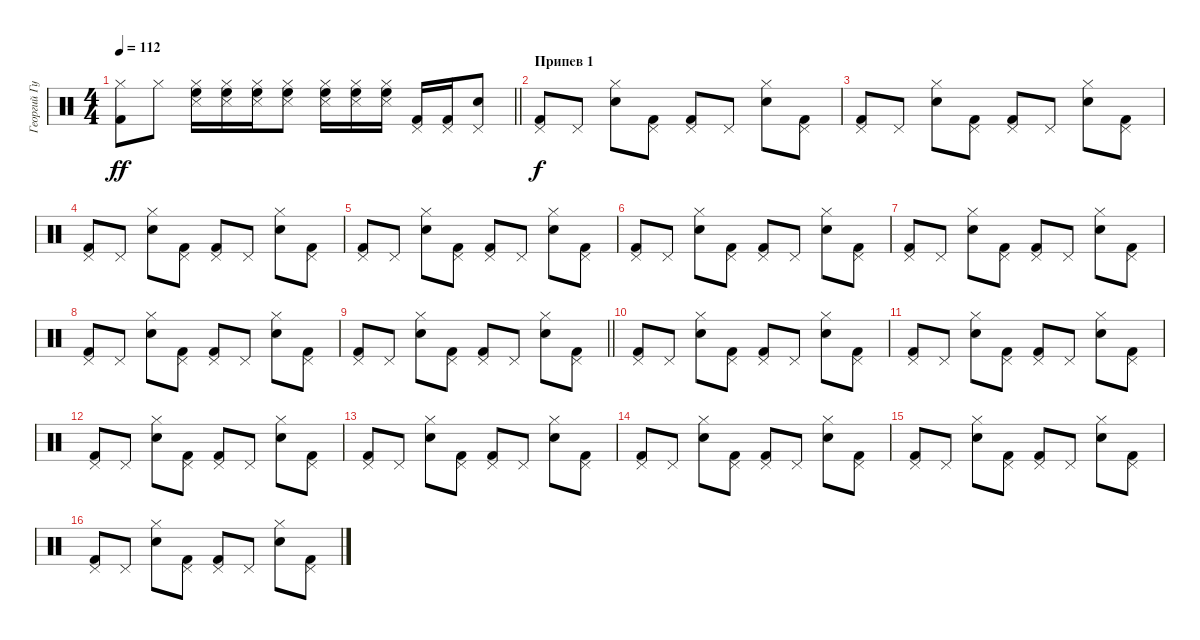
\track ("Георгий Гурьянов" "Георгий Гу") {instrument percussion}
\staff {score}
\articulation defaults
\ts (4 4)
\tempo 112
\clef neutral
\barLineRight lightlight
\ks c
("Hi-Hat (closed)" "Kick (hit) 2").8{dy ff} "Hi-Hat (closed)".8 ("Hi-Hat (closed)" "Metronome (hit)" "High Floor Tom (hit)").16 ("Hi-Hat (closed)" "Metronome (hit)" "High Floor Tom (hit)").16 ("Hi-Hat (closed)" "Metronome (hit)" "High Floor Tom (hit)").16 ("Hi-Hat (closed)" "Metronome (hit)" "High Floor Tom (hit)").8 ("Hi-Hat (closed)" "Metronome (hit)" "High Floor Tom (hit)").16 ("Hi-Hat (closed)" "Metronome (hit)" "High Floor Tom (hit)").16 ("Hi-Hat (closed)" "Metronome (hit)" "High Floor Tom (hit)").16 ("Pedal Hi-Hat (hit)" "Kick (hit) 2").16 ("Pedal Hi-Hat (hit)" "Kick (hit) 2").16 ("Pedal Hi-Hat (hit)" "Snare (hit) 2").8 |
\section ("" "Припев 1")
("Pedal Hi-Hat (hit)" "Kick (hit) 2").8{dy f} "Pedal Hi-Hat (hit)".8 ("Hi-Hat (closed)" "Electric Snare (hit)").8 ("Pedal Hi-Hat (hit)" "Kick (hit) 2").8 ("Pedal Hi-Hat (hit)" "Kick (hit) 2").8 "Pedal Hi-Hat (hit)".8 ("Hi-Hat (closed)" "Electric Snare (hit)").8 ("Pedal Hi-Hat (hit)" "Kick (hit) 2").8 |
("Pedal Hi-Hat (hit)" "Kick (hit) 2").8 "Pedal Hi-Hat (hit)".8 ("Hi-Hat (closed)" "Electric Snare (hit)").8 ("Pedal Hi-Hat (hit)" "Kick (hit) 2").8 ("Pedal Hi-Hat (hit)" "Kick (hit) 2").8 "Pedal Hi-Hat (hit)".8 ("Hi-Hat (closed)" "Electric Snare (hit)").8 ("Pedal Hi-Hat (hit)" "Kick (hit) 2").8 |
("Pedal Hi-Hat (hit)" "Kick (hit) 2").8 "Pedal Hi-Hat (hit)".8 ("Hi-Hat (closed)" "Electric Snare (hit)").8 ("Pedal Hi-Hat (hit)" "Kick (hit) 2").8 ("Pedal Hi-Hat (hit)" "Kick (hit) 2").8 "Pedal Hi-Hat (hit)".8 ("Hi-Hat (closed)" "Electric Snare (hit)").8 ("Pedal Hi-Hat (hit)" "Kick (hit) 2").8 |
("Pedal Hi-Hat (hit)" "Kick (hit) 2").8 "Pedal Hi-Hat (hit)".8 ("Hi-Hat (closed)" "Electric Snare (hit)").8 ("Pedal Hi-Hat (hit)" "Kick (hit) 2").8 ("Pedal Hi-Hat (hit)" "Kick (hit) 2").8 "Pedal Hi-Hat (hit)".8 ("Hi-Hat (closed)" "Electric Snare (hit)").8 ("Pedal Hi-Hat (hit)" "Kick (hit) 2").8 |
("Pedal Hi-Hat (hit)" "Kick (hit) 2").8 "Pedal Hi-Hat (hit)".8 ("Hi-Hat (closed)" "Electric Snare (hit)").8 ("Pedal Hi-Hat (hit)" "Kick (hit) 2").8 ("Pedal Hi-Hat (hit)" "Kick (hit) 2").8 "Pedal Hi-Hat (hit)".8 ("Hi-Hat (closed)" "Electric Snare (hit)").8 ("Pedal Hi-Hat (hit)" "Kick (hit) 2").8 |
("Pedal Hi-Hat (hit)" "Kick (hit) 2").8 "Pedal Hi-Hat (hit)".8 ("Hi-Hat (closed)" "Electric Snare (hit)").8 ("Pedal Hi-Hat (hit)" "Kick (hit) 2").8 ("Pedal Hi-Hat (hit)" "Kick (hit) 2").8 "Pedal Hi-Hat (hit)".8 ("Hi-Hat (closed)" "Electric Snare (hit)").8 ("Pedal Hi-Hat (hit)" "Kick (hit) 2").8 |
("Pedal Hi-Hat (hit)" "Kick (hit) 2").8 "Pedal Hi-Hat (hit)".8 ("Hi-Hat (closed)" "Electric Snare (hit)").8 ("Pedal Hi-Hat (hit)" "Kick (hit) 2").8 ("Pedal Hi-Hat (hit)" "Kick (hit) 2").8 "Pedal Hi-Hat (hit)".8 ("Hi-Hat (closed)" "Electric Snare (hit)").8 ("Pedal Hi-Hat (hit)" "Kick (hit) 2").8 |
\barLineRight lightlight
("Pedal Hi-Hat (hit)" "Kick (hit) 2").8 "Pedal Hi-Hat (hit)".8 ("Hi-Hat (closed)" "Electric Snare (hit)").8 ("Pedal Hi-Hat (hit)" "Kick (hit) 2").8 ("Pedal Hi-Hat (hit)" "Kick (hit) 2").8 "Pedal Hi-Hat (hit)".8 ("Hi-Hat (closed)" "Electric Snare (hit)").8 ("Pedal Hi-Hat (hit)" "Kick (hit) 2").8 |
("Pedal Hi-Hat (hit)" "Kick (hit) 2").8 "Pedal Hi-Hat (hit)".8 ("Hi-Hat (closed)" "Electric Snare (hit)").8 ("Pedal Hi-Hat (hit)" "Kick (hit) 2").8 ("Pedal Hi-Hat (hit)" "Kick (hit) 2").8 "Pedal Hi-Hat (hit)".8 ("Hi-Hat (closed)" "Electric Snare (hit)").8 ("Pedal Hi-Hat (hit)" "Kick (hit) 2").8 |
("Pedal Hi-Hat (hit)" "Kick (hit) 2").8 "Pedal Hi-Hat (hit)".8 ("Hi-Hat (closed)" "Electric Snare (hit)").8 ("Pedal Hi-Hat (hit)" "Kick (hit) 2").8 ("Pedal Hi-Hat (hit)" "Kick (hit) 2").8 "Pedal Hi-Hat (hit)".8 ("Hi-Hat (closed)" "Electric Snare (hit)").8 ("Pedal Hi-Hat (hit)" "Kick (hit) 2").8 |
("Pedal Hi-Hat (hit)" "Kick (hit) 2").8 "Pedal Hi-Hat (hit)".8 ("Hi-Hat (closed)" "Electric Snare (hit)").8 ("Pedal Hi-Hat (hit)" "Kick (hit) 2").8 ("Pedal Hi-Hat (hit)" "Kick (hit) 2").8 "Pedal Hi-Hat (hit)".8 ("Hi-Hat (closed)" "Electric Snare (hit)").8 ("Pedal Hi-Hat (hit)" "Kick (hit) 2").8 |
("Pedal Hi-Hat (hit)" "Kick (hit) 2").8 "Pedal Hi-Hat (hit)".8 ("Hi-Hat (closed)" "Electric Snare (hit)").8 ("Pedal Hi-Hat (hit)" "Kick (hit) 2").8 ("Pedal Hi-Hat (hit)" "Kick (hit) 2").8 "Pedal Hi-Hat (hit)".8 ("Hi-Hat (closed)" "Electric Snare (hit)").8 ("Pedal Hi-Hat (hit)" "Kick (hit) 2").8 |
("Pedal Hi-Hat (hit)" "Kick (hit) 2").8 "Pedal Hi-Hat (hit)".8 ("Hi-Hat (closed)" "Electric Snare (hit)").8 ("Pedal Hi-Hat (hit)" "Kick (hit) 2").8 ("Pedal Hi-Hat (hit)" "Kick (hit) 2").8 "Pedal Hi-Hat (hit)".8 ("Hi-Hat (closed)" "Electric Snare (hit)").8 ("Pedal Hi-Hat (hit)" "Kick (hit) 2").8 |
("Pedal Hi-Hat (hit)" "Kick (hit) 2").8 "Pedal Hi-Hat (hit)".8 ("Hi-Hat (closed)" "Electric Snare (hit)").8 ("Pedal Hi-Hat (hit)" "Kick (hit) 2").8 ("Pedal Hi-Hat (hit)" "Kick (hit) 2").8 "Pedal Hi-Hat (hit)".8 ("Hi-Hat (closed)" "Electric Snare (hit)").8 ("Pedal Hi-Hat (hit)" "Kick (hit) 2").8 |
("Pedal Hi-Hat (hit)" "Kick (hit) 2").8 "Pedal Hi-Hat (hit)".8 ("Hi-Hat (closed)" "Electric Snare (hit)").8 ("Pedal Hi-Hat (hit)" "Kick (hit) 2").8 ("Pedal Hi-Hat (hit)" "Kick (hit) 2").8 "Pedal Hi-Hat (hit)".8 ("Hi-Hat (closed)" "Electric Snare (hit)").8 ("Pedal Hi-Hat (hit)" "Kick (hit) 2").8
